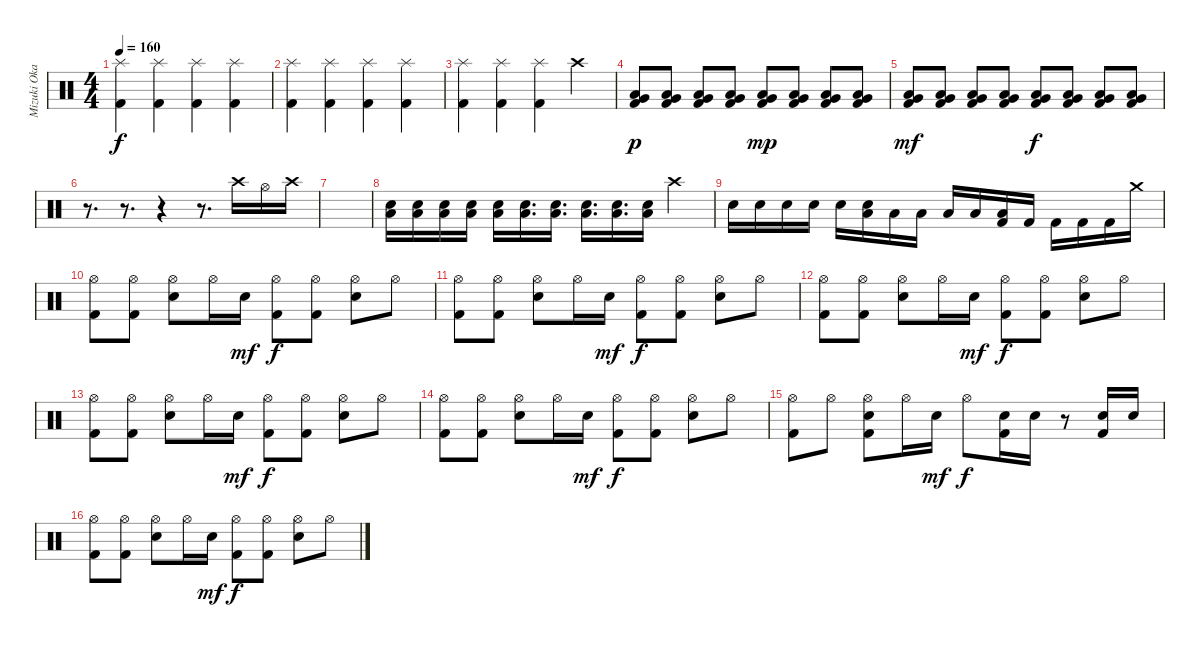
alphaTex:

\track ("Mizuki Okajima (Drums)" "Mizuki Oka") {instrument percussion}
\staff {score}
\articulation defaults
\ts (4 4)
\tempo 160
\clef neutral
\ks c
("Splash (hit)" "Kick (hit) 2").4{dy f} ("Splash (hit)" "Kick (hit) 2").4 ("Splash (hit)" "Kick (hit) 2").4 ("Splash (hit)" "Kick (hit) 2").4 |
("Splash (hit)" "Kick (hit) 2").4 ("Splash (hit)" "Kick (hit) 2").4 ("Splash (hit)" "Kick (hit) 2").4 ("Splash (hit)" "Kick (hit) 2").4 |
("Splash (hit)" "Kick (hit) 2").4 ("Splash (hit)" "Kick (hit) 2").4 ("Splash (hit)" "Kick (hit) 2").4 "Crash high (hit)".4 |
("Low Tom (hit)" "Very Low Tom (hit)" "Kick (hit) 2").8{dy p} ("Low Tom (hit)" "Very Low Tom (hit)" "Kick (hit) 2").8 ("Low Tom (hit)" "Very Low Tom (hit)" "Kick (hit) 2").8 ("Low Tom (hit)" "Very Low Tom (hit)" "Kick (hit) 2").8 ("Low Tom (hit)" "Very Low Tom (hit)" "Kick (hit) 2").8{dy mp} ("Low Tom (hit)" "Very Low Tom (hit)" "Kick (hit) 2").8 ("Low Tom (hit)" "Very Low Tom (hit)" "Kick (hit) 2").8 ("Low Tom (hit)" "Very Low Tom (hit)" "Kick (hit) 2").8 |
("Low Tom (hit)" "Very Low Tom (hit)" "Kick (hit) 2").8{dy mf} ("Low Tom (hit)" "Very Low Tom (hit)" "Kick (hit) 2").8 ("Low Tom (hit)" "Very Low Tom (hit)" "Kick (hit) 2").8 ("Low Tom (hit)" "Very Low Tom (hit)" "Kick (hit) 2").8 ("Low Tom (hit)" "Very Low Tom (hit)" "Kick (hit) 2").8{dy f} ("Low Tom (hit)" "Very Low Tom (hit)" "Kick (hit) 2").8 ("Low Tom (hit)" "Very Low Tom (hit)" "Kick (hit) 2").8 ("Low Tom (hit)" "Very Low Tom (hit)" "Kick (hit) 2").8 |
r.8{d} r.8{d} r.4 r.8{d} "Crash high (hit)".16 "Hi-Hat (open)".16 "Crash high (hit)".16 |
|
("Snare (hit) 2" "Low Tom (hit)").16 ("Snare (hit) 2" "Low Tom (hit)").16 ("Snare (hit) 2" "Low Tom (hit)").16 ("Snare (hit) 2" "Low Tom (hit)").16 ("Snare (hit) 2" "Low Tom (hit)").16 ("Snare (hit) 2" "Low Tom (hit)").16{d} ("Snare (hit) 2" "Low Tom (hit)").16{d} ("Snare (hit) 2" "Low Tom (hit)").16{d} ("Snare (hit) 2" "Low Tom (hit)").16{d} ("Snare (hit) 2" "Low Tom (hit)").16 "Crash high (hit)".4 |
"Snare (hit) 2".16 "Snare (hit) 2".16 "Snare (hit) 2".16 "Snare (hit) 2".16 "Snare (hit) 2".16 ("Snare (hit) 2" "Low Tom (hit)").16 "Low Tom (hit)".16 "Low Tom (hit)".16 "Low Tom (hit)".16 "Low Tom (hit)".16 ("Low Tom (hit)" "Kick (hit) 2").16 "Kick (hit) 2".16 "Kick (hit) 2".16 "Kick (hit) 2".16 "Kick (hit) 2".16 "Crash medium (hit)".16 |
("Hi-Hat (open)" "Kick (hit) 2").8 ("Hi-Hat (open)" "Kick (hit) 2").8 ("Hi-Hat (open)" "Snare (hit) 2").8 "Hi-Hat (open)".16 "Snare (hit) 2".16{dy mf} ("Hi-Hat (open)" "Kick (hit) 2").8{dy f} ("Hi-Hat (open)" "Kick (hit) 2").8 ("Hi-Hat (open)" "Snare (hit) 2").8 "Hi-Hat (open)".8 |
("Hi-Hat (open)" "Kick (hit) 2").8 ("Hi-Hat (open)" "Kick (hit) 2").8 ("Hi-Hat (open)" "Snare (hit) 2").8 "Hi-Hat (open)".16 "Snare (hit) 2".16{dy mf} ("Hi-Hat (open)" "Kick (hit) 2").8{dy f} ("Hi-Hat (open)" "Kick (hit) 2").8 ("Hi-Hat (open)" "Snare (hit) 2").8 "Hi-Hat (open)".8 |
("Hi-Hat (open)" "Kick (hit) 2").8 ("Hi-Hat (open)" "Kick (hit) 2").8 ("Hi-Hat (open)" "Snare (hit) 2").8 "Hi-Hat (open)".16 "Snare (hit) 2".16{dy mf} ("Hi-Hat (open)" "Kick (hit) 2").8{dy f} ("Hi-Hat (open)" "Kick (hit) 2").8 ("Hi-Hat (open)" "Snare (hit) 2").8 "Hi-Hat (open)".8 |
("Hi-Hat (open)" "Kick (hit) 2").8 ("Hi-Hat (open)" "Kick (hit) 2").8 ("Hi-Hat (open)" "Snare (hit) 2").8 "Hi-Hat (open)".16 "Snare (hit) 2".16{dy mf} ("Hi-Hat (open)" "Kick (hit) 2").8{dy f} ("Hi-Hat (open)" "Kick (hit) 2").8 ("Hi-Hat (open)" "Snare (hit) 2").8 "Hi-Hat (open)".8 |
("Hi-Hat (open)" "Kick (hit) 2").8 ("Hi-Hat (open)" "Kick (hit) 2").8 ("Hi-Hat (open)" "Snare (hit) 2").8 "Hi-Hat (open)".16 "Snare (hit) 2".16{dy mf} ("Hi-Hat (open)" "Kick (hit) 2").8{dy f} ("Hi-Hat (open)" "Kick (hit) 2").8 ("Hi-Hat (open)" "Snare (hit) 2").8 "Hi-Hat (open)".8 |
("Hi-Hat (open)" "Kick (hit) 2").8 "Hi-Hat (open)".8 ("Hi-Hat (open)" "Snare (hit) 2" "Kick (hit) 2").8 "Hi-Hat (open)".16 "Snare (hit) 2".16{dy mf} "Hi-Hat (open)".8{dy f} ("Snare (hit) 2" "Kick (hit) 2").16 "Snare (hit) 2".16 r.8 ("Snare (hit) 2" "Kick (hit) 2").16 "Snare (hit) 2".16 |
("Hi-Hat (open)" "Kick (hit) 2").8 ("Hi-Hat (open)" "Kick (hit) 2").8 ("Hi-Hat (open)" "Snare (hit) 2").8 "Hi-Hat (open)".16 "Snare (hit) 2".16{dy mf} ("Hi-Hat (open)" "Kick (hit) 2").8{dy f} ("Hi-Hat (open)" "Kick (hit) 2").8 ("Hi-Hat (open)" "Snare (hit) 2").8 "Hi-Hat (open)".8
